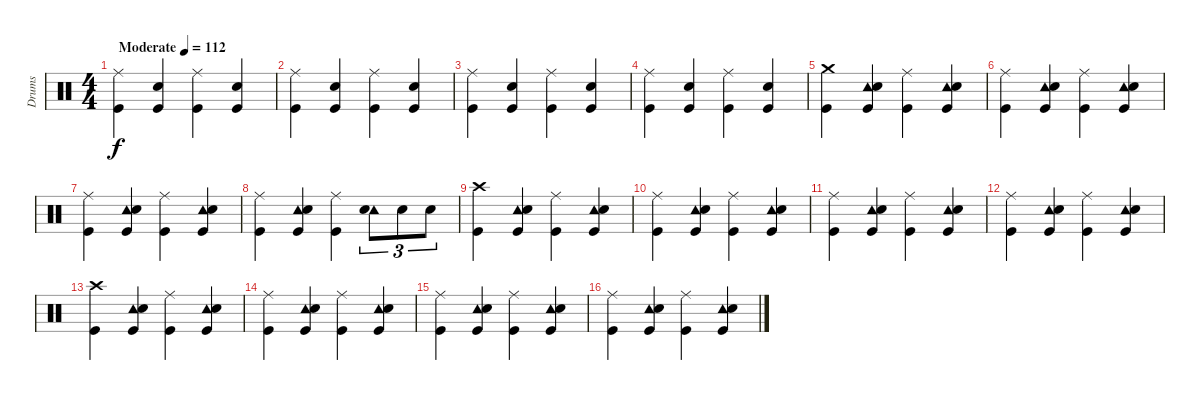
\track ("Drums" "Drums") {instrument percussion}
\staff {score}
\articulation defaults
\ts (4 4)
\tempo (112 "Moderate")
\clef neutral
\ks c
("Kick (hit)" "Ride (middle)").4{dy f} ("Snare (hit) 2" "Kick (hit)").4 ("Kick (hit)" "Ride (middle)").4 ("Snare (hit) 2" "Kick (hit)").4 |
("Kick (hit)" "Ride (middle)").4 ("Snare (hit) 2" "Kick (hit)").4 ("Kick (hit)" "Ride (middle)").4 ("Snare (hit) 2" "Kick (hit)").4 |
("Kick (hit)" "Ride (middle)").4 ("Snare (hit) 2" "Kick (hit)").4 ("Kick (hit)" "Ride (middle)").4 ("Snare (hit) 2" "Kick (hit)").4 |
("Kick (hit)" "Ride (middle)").4 ("Snare (hit) 2" "Kick (hit)").4 ("Kick (hit)" "Ride (middle)").4 ("Snare (hit) 2" "Kick (hit)").4 |
("Kick (hit)" "Crash medium (hit)").4 ("Tambourine (hit)" "Snare (hit) 2" "Kick (hit)").4 ("Kick (hit)" "Ride (middle)").4 ("Tambourine (hit)" "Snare (hit) 2" "Kick (hit)").4 |
("Kick (hit)" "Ride (middle)").4 ("Tambourine (hit)" "Snare (hit) 2" "Kick (hit)").4 ("Kick (hit)" "Ride (middle)").4 ("Tambourine (hit)" "Snare (hit) 2" "Kick (hit)").4 |
("Kick (hit)" "Ride (middle)").4 ("Tambourine (hit)" "Snare (hit) 2" "Kick (hit)").4 ("Kick (hit)" "Ride (middle)").4 ("Tambourine (hit)" "Snare (hit) 2" "Kick (hit)").4 |
("Kick (hit)" "Ride (middle)").4 ("Tambourine (hit)" "Snare (hit) 2" "Kick (hit)").4 ("Kick (hit)" "Ride (middle)").4 ("Tambourine (hit)" "Snare (hit) 2").8{tu (3 2)} "Snare (hit) 2".8{tu (3 2)} "Snare (hit) 2".8{tu (3 2)} |
("Kick (hit)" "Crash high (hit)").4 ("Tambourine (hit)" "Snare (hit) 2" "Kick (hit)").4 ("Kick (hit)" "Ride (middle)").4 ("Tambourine (hit)" "Snare (hit) 2" "Kick (hit)").4 |
("Kick (hit)" "Ride (middle)").4 ("Tambourine (hit)" "Snare (hit) 2" "Kick (hit)").4 ("Kick (hit)" "Ride (middle)").4 ("Tambourine (hit)" "Snare (hit) 2" "Kick (hit)").4 |
("Kick (hit)" "Ride (middle)").4 ("Tambourine (hit)" "Snare (hit) 2" "Kick (hit)").4 ("Kick (hit)" "Ride (middle)").4 ("Tambourine (hit)" "Snare (hit) 2" "Kick (hit)").4 |
("Kick (hit)" "Ride (middle)").4 ("Tambourine (hit)" "Snare (hit) 2" "Kick (hit)").4 ("Kick (hit)" "Ride (middle)").4 ("Tambourine (hit)" "Snare (hit) 2" "Kick (hit)").4 |
("Kick (hit)" "Crash high (hit)").4 ("Tambourine (hit)" "Snare (hit) 2" "Kick (hit)").4 ("Kick (hit)" "Ride (middle)").4 ("Tambourine (hit)" "Snare (hit) 2" "Kick (hit)").4 |
("Kick (hit)" "Ride (middle)").4 ("Tambourine (hit)" "Snare (hit) 2" "Kick (hit)").4 ("Kick (hit)" "Ride (middle)").4 ("Tambourine (hit)" "Snare (hit) 2" "Kick (hit)").4 |
("Kick (hit)" "Ride (middle)").4 ("Tambourine (hit)" "Snare (hit) 2" "Kick (hit)").4 ("Kick (hit)" "Ride (middle)").4 ("Tambourine (hit)" "Snare (hit) 2" "Kick (hit)").4 |
("Kick (hit)" "Ride (middle)").4 ("Tambourine (hit)" "Snare (hit) 2" "Kick (hit)").4 ("Kick (hit)" "Ride (middle)").4 ("Tambourine (hit)" "Snare (hit) 2" "Kick (hit)").4
